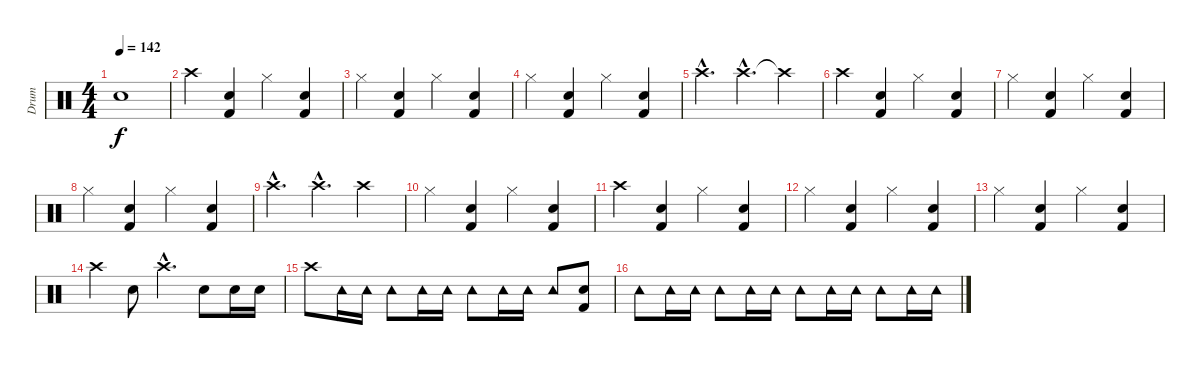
\track ("Drum" "Drum") {instrument percussion}
\staff {score}
\articulation defaults
\ts (4 4)
\tempo 142
\clef neutral
\ks c "Snare (hit)"{t}.1{dy f}
|
"Crash high (hit)".4 ("Electric Snare (hit)" "Kick (hit) 2").4 "Hi-Hat (closed)".4 ("Electric Snare (hit)" "Kick (hit) 2").4 |
"Hi-Hat (closed)".4 ("Electric Snare (hit)" "Kick (hit) 2").4 "Hi-Hat (closed)".4 ("Electric Snare (hit)" "Kick (hit) 2").4 |
"Hi-Hat (closed)".4 ("Electric Snare (hit)" "Kick (hit) 2").4 "Hi-Hat (closed)".4 ("Electric Snare (hit)" "Kick (hit) 2").4 |
"Crash high (hit)"{hac}.4{d} "Crash high (hit)"{hac}.4{d} "Crash high (hit)"{t}.4 |
"Crash high (hit)".4 ("Electric Snare (hit)" "Kick (hit) 2").4 "Hi-Hat (closed)".4 ("Electric Snare (hit)" "Kick (hit) 2").4 |
"Hi-Hat (closed)".4 ("Electric Snare (hit)" "Kick (hit) 2").4 "Hi-Hat (closed)".4 ("Electric Snare (hit)" "Kick (hit) 2").4 |
"Hi-Hat (closed)".4 ("Electric Snare (hit)" "Kick (hit) 2").4 "Hi-Hat (closed)".4 ("Electric Snare (hit)" "Kick (hit) 2").4 |
"Crash high (hit)"{hac}.4{d} "Crash high (hit)"{hac}.4{d} "Crash high (hit)".4 |
"Hi-Hat (closed)".4 ("Electric Snare (hit)" "Kick (hit) 2").4 "Hi-Hat (closed)".4 ("Electric Snare (hit)" "Kick (hit) 2").4 |
"Crash high (hit)".4 ("Electric Snare (hit)" "Kick (hit) 2").4 "Hi-Hat (closed)".4 ("Electric Snare (hit)" "Kick (hit) 2").4 |
"Hi-Hat (closed)".4 ("Electric Snare (hit)" "Kick (hit) 2").4 "Hi-Hat (closed)".4 ("Electric Snare (hit)" "Kick (hit) 2").4 |
"Hi-Hat (closed)".4 ("Electric Snare (hit)" "Kick (hit) 2").4 "Hi-Hat (closed)".4 ("Electric Snare (hit)" "Kick (hit) 2").4 |
"Crash high (hit)".4 "Electric Snare (hit)".8 "Crash high (hit)"{hac}.4{d} "Electric Snare (hit)".8 "Electric Snare (hit)".16 "Electric Snare (hit)".16 |
"Crash high (hit)".8 "Tambourine (hit)".16 "Tambourine (hit)".16 "Tambourine (hit)".8 "Tambourine (hit)".16 "Tambourine (hit)".16 "Tambourine (hit)".8 "Tambourine (hit)".16 "Tambourine (hit)".16 "Tambourine (hit)".8 ("Electric Snare (hit)" "Kick (hit) 2").8 |
"Tambourine (hit)".8 "Tambourine (hit)".16 "Tambourine (hit)".16 "Tambourine (hit)".8 "Tambourine (hit)".16 "Tambourine (hit)".16 "Tambourine (hit)".8 "Tambourine (hit)".16 "Tambourine (hit)".16 "Tambourine (hit)".8 "Tambourine (hit)".16 "Tambourine (hit)".16
